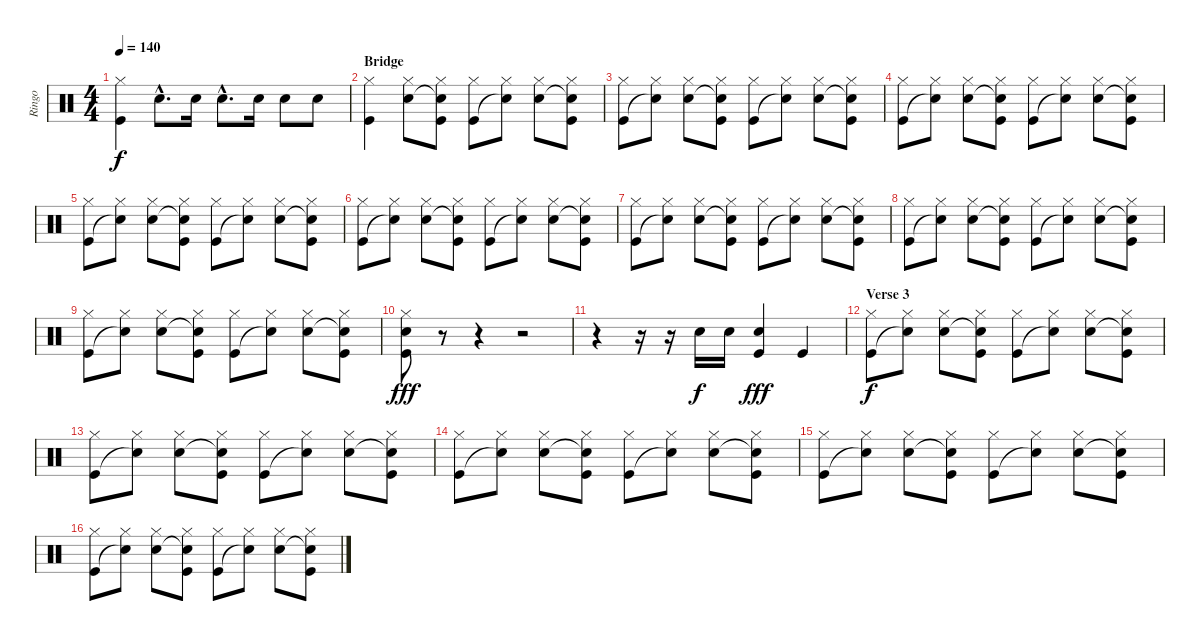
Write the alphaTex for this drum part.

\track ("Ringo" "Ringo") {instrument percussion}
\staff {score}
\articulation defaults
\ts (4 4)
\tempo 140
\clef neutral
\ks c
("Hi-Hat (closed)" "Kick (hit)").4{dy f} "Snare (hit) 2"{hac}.8{d} "Snare (hit) 2".16 "Snare (hit) 2"{hac}.8{d} "Snare (hit) 2".16 "Snare (hit) 2".8 "Snare (hit) 2".8 |
\section ("" "Bridge")
("Hi-Hat (closed)" "Kick (hit)").4 ("Hi-Hat (closed)" "Snare (hit) 2").8 ("Hi-Hat (closed)" "Snare (hit)"{t} "Kick (hit)").8 ("Hi-Hat (closed)" "Kick (hit)").8 ("Hi-Hat (closed)" "Snare (hit)"{t}).8 ("Hi-Hat (closed)" "Snare (hit) 2").8 ("Hi-Hat (closed)" "Snare (hit)"{t} "Kick (hit)").8 |
("Hi-Hat (closed)" "Kick (hit)").8 ("Hi-Hat (closed)" "Snare (hit)"{t}).8 ("Hi-Hat (closed)" "Snare (hit) 2").8 ("Hi-Hat (closed)" "Snare (hit)"{t} "Kick (hit)").8 ("Hi-Hat (closed)" "Kick (hit)").8 ("Hi-Hat (closed)" "Snare (hit)"{t}).8 ("Hi-Hat (closed)" "Snare (hit) 2").8 ("Hi-Hat (closed)" "Snare (hit)"{t} "Kick (hit)").8 |
("Hi-Hat (closed)" "Kick (hit)").8 ("Hi-Hat (closed)" "Snare (hit)"{t}).8 ("Hi-Hat (closed)" "Snare (hit) 2").8 ("Hi-Hat (closed)" "Snare (hit)"{t} "Kick (hit)").8 ("Hi-Hat (closed)" "Kick (hit)").8 ("Hi-Hat (closed)" "Snare (hit)"{t}).8 ("Hi-Hat (closed)" "Snare (hit) 2").8 ("Hi-Hat (closed)" "Snare (hit)"{t} "Kick (hit)").8 |
("Hi-Hat (closed)" "Kick (hit)").8 ("Hi-Hat (closed)" "Snare (hit)"{t}).8 ("Hi-Hat (closed)" "Snare (hit) 2").8 ("Hi-Hat (closed)" "Snare (hit)"{t} "Kick (hit)").8 ("Hi-Hat (closed)" "Kick (hit)").8 ("Hi-Hat (closed)" "Snare (hit)"{t}).8 ("Hi-Hat (closed)" "Snare (hit) 2").8 ("Hi-Hat (closed)" "Snare (hit)"{t} "Kick (hit)").8 |
("Hi-Hat (closed)" "Kick (hit)").8 ("Hi-Hat (closed)" "Snare (hit)"{t}).8 ("Hi-Hat (closed)" "Snare (hit) 2").8 ("Hi-Hat (closed)" "Snare (hit)"{t} "Kick (hit)").8 ("Hi-Hat (closed)" "Kick (hit)").8 ("Hi-Hat (closed)" "Snare (hit)"{t}).8 ("Hi-Hat (closed)" "Snare (hit) 2").8 ("Hi-Hat (closed)" "Snare (hit)"{t} "Kick (hit)").8 |
("Hi-Hat (closed)" "Kick (hit)").8 ("Hi-Hat (closed)" "Snare (hit)"{t}).8 ("Hi-Hat (closed)" "Snare (hit) 2").8 ("Hi-Hat (closed)" "Snare (hit)"{t} "Kick (hit)").8 ("Hi-Hat (closed)" "Kick (hit)").8 ("Hi-Hat (closed)" "Snare (hit)"{t}).8 ("Hi-Hat (closed)" "Snare (hit) 2").8 ("Hi-Hat (closed)" "Snare (hit)"{t} "Kick (hit)").8 |
("Hi-Hat (closed)" "Kick (hit)").8 ("Hi-Hat (closed)" "Snare (hit)"{t}).8 ("Hi-Hat (closed)" "Snare (hit) 2").8 ("Hi-Hat (closed)" "Snare (hit)"{t} "Kick (hit)").8 ("Hi-Hat (closed)" "Kick (hit)").8 ("Hi-Hat (closed)" "Snare (hit)"{t}).8 ("Hi-Hat (closed)" "Snare (hit) 2").8 ("Hi-Hat (closed)" "Snare (hit)"{t} "Kick (hit)").8 |
("Hi-Hat (closed)" "Kick (hit)").8 ("Hi-Hat (closed)" "Snare (hit)"{t}).8 ("Hi-Hat (closed)" "Snare (hit) 2").8 ("Hi-Hat (closed)" "Snare (hit)"{t} "Kick (hit)").8 ("Hi-Hat (closed)" "Kick (hit)").8 ("Hi-Hat (closed)" "Snare (hit)"{t}).8 ("Hi-Hat (closed)" "Snare (hit) 2").8 ("Hi-Hat (closed)" "Snare (hit)"{t} "Kick (hit)").8 |
("Hi-Hat (closed)" "Snare (hit) 2" "Kick (hit)").8{dy fff} r.8 r.4 r.2 |
r.4 r.16 r.16 "Snare (hit) 2".16{dy f} "Snare (hit) 2".16 ("Snare (hit) 2" "Kick (hit)").4{dy fff} "Kick (hit)".4 |
\section ("" "Verse 3")
("Hi-Hat (closed)" "Kick (hit)").8{dy f} ("Hi-Hat (closed)" "Snare (hit)"{t}).8 ("Hi-Hat (closed)" "Snare (hit) 2").8 ("Hi-Hat (closed)" "Snare (hit)"{t} "Kick (hit)").8 ("Hi-Hat (closed)" "Kick (hit)").8 ("Hi-Hat (closed)" "Snare (hit)"{t}).8 ("Hi-Hat (closed)" "Snare (hit) 2").8 ("Hi-Hat (closed)" "Snare (hit)"{t} "Kick (hit)").8 |
("Hi-Hat (closed)" "Kick (hit)").8 ("Hi-Hat (closed)" "Snare (hit)"{t}).8 ("Hi-Hat (closed)" "Snare (hit) 2").8 ("Hi-Hat (closed)" "Snare (hit)"{t} "Kick (hit)").8 ("Hi-Hat (closed)" "Kick (hit)").8 ("Hi-Hat (closed)" "Snare (hit)"{t}).8 ("Hi-Hat (closed)" "Snare (hit) 2").8 ("Hi-Hat (closed)" "Snare (hit)"{t} "Kick (hit)").8 |
("Hi-Hat (closed)" "Kick (hit)").8 ("Hi-Hat (closed)" "Snare (hit)"{t}).8 ("Hi-Hat (closed)" "Snare (hit) 2").8 ("Hi-Hat (closed)" "Snare (hit)"{t} "Kick (hit)").8 ("Hi-Hat (closed)" "Kick (hit)").8 ("Hi-Hat (closed)" "Snare (hit)"{t}).8 ("Hi-Hat (closed)" "Snare (hit) 2").8 ("Hi-Hat (closed)" "Snare (hit)"{t} "Kick (hit)").8 |
("Hi-Hat (closed)" "Kick (hit)").8 ("Hi-Hat (closed)" "Snare (hit)"{t}).8 ("Hi-Hat (closed)" "Snare (hit) 2").8 ("Hi-Hat (closed)" "Snare (hit)"{t} "Kick (hit)").8 ("Hi-Hat (closed)" "Kick (hit)").8 ("Hi-Hat (closed)" "Snare (hit)"{t}).8 ("Hi-Hat (closed)" "Snare (hit) 2").8 ("Hi-Hat (closed)" "Snare (hit)"{t} "Kick (hit)").8 |
("Hi-Hat (closed)" "Kick (hit)").8 ("Hi-Hat (closed)" "Snare (hit)"{t}).8 ("Hi-Hat (closed)" "Snare (hit) 2").8 ("Hi-Hat (closed)" "Snare (hit)"{t} "Kick (hit)").8 ("Hi-Hat (closed)" "Kick (hit)").8 ("Hi-Hat (closed)" "Snare (hit)"{t}).8 ("Hi-Hat (closed)" "Snare (hit) 2").8 ("Hi-Hat (closed)" "Snare (hit)"{t} "Kick (hit)").8
